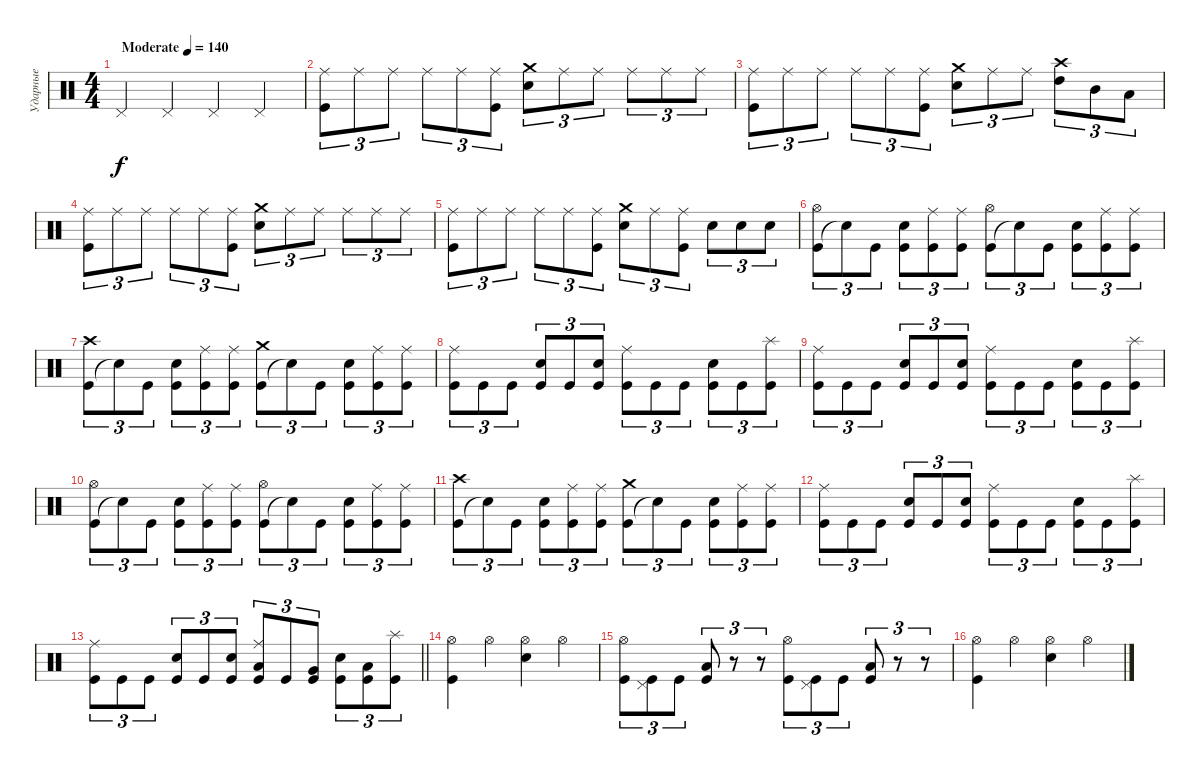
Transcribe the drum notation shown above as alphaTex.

\track ("Ударные" "Ударные") {instrument percussion}
\staff {score}
\articulation defaults
\ts (4 4)
\tempo (140 "Moderate")
\clef neutral
\ks c "Pedal Hi-Hat (hit)".4{dy f} "Pedal Hi-Hat (hit)".4 "Pedal Hi-Hat (hit)".4 "Pedal Hi-Hat (hit)".4
|
("Kick (hit)" "Ride (middle)").8{tu (3 2)} "Ride (middle)".8{tu (3 2)} "Ride (middle)".8{tu (3 2)} "Ride (middle)".8{tu (3 2)} "Ride (middle)".8{tu (3 2)} ("Kick (hit)" "Ride (middle)").8{tu (3 2)} ("Electric Snare (hit)" "Crash medium (hit)").8{tu (3 2)} "Ride (middle)".8{tu (3 2)} "Ride (middle)".8{tu (3 2)} "Ride (middle)".8{tu (3 2)} "Ride (middle)".8{tu (3 2)} "Ride (middle)".8{tu (3 2)} |
("Kick (hit)" "Ride (middle)").8{tu (3 2)} "Ride (middle)".8{tu (3 2)} "Ride (middle)".8{tu (3 2)} "Ride (middle)".8{tu (3 2)} "Ride (middle)".8{tu (3 2)} ("Kick (hit)" "Ride (middle)").8{tu (3 2)} ("Electric Snare (hit)" "Crash medium (hit)").8{tu (3 2)} "Ride (middle)".8{tu (3 2)} "Ride (middle)".8{tu (3 2)} ("High Tom (hit)" "Crash high (hit)").8{tu (3 2)} "Mid Tom (hit)".8{tu (3 2)} "Low Tom (hit)".8{tu (3 2)} |
("Kick (hit)" "Ride (middle)").8{tu (3 2)} "Ride (middle)".8{tu (3 2)} "Ride (middle)".8{tu (3 2)} "Ride (middle)".8{tu (3 2)} "Ride (middle)".8{tu (3 2)} ("Kick (hit)" "Ride (middle)").8{tu (3 2)} ("Electric Snare (hit)" "Crash medium (hit)").8{tu (3 2)} "Ride (middle)".8{tu (3 2)} "Ride (middle)".8{tu (3 2)} "Ride (middle)".8{tu (3 2)} "Ride (middle)".8{tu (3 2)} "Ride (middle)".8{tu (3 2)} |
("Kick (hit)" "Ride (middle)").8{tu (3 2)} "Ride (middle)".8{tu (3 2)} "Ride (middle)".8{tu (3 2)} "Ride (middle)".8{tu (3 2)} "Ride (middle)".8{tu (3 2)} ("Kick (hit)" "Ride (middle)").8{tu (3 2)} ("Electric Snare (hit)" "Crash medium (hit)").8{tu (3 2)} "Ride (middle)".8{tu (3 2)} ("Kick (hit)" "Ride (middle)").8{tu (3 2)} "Electric Snare (hit)".8{tu (3 2)} "Electric Snare (hit)".8{tu (3 2)} "Electric Snare (hit)".8{tu (3 2)} |
("Kick (hit)" "Hi-Hat (open)").8{tu (3 2)} "Snare (hit)"{t}.8{tu (3 2)} "Kick (hit)".8{tu (3 2)} ("Kick (hit)" "Electric Snare (hit)").8{tu (3 2)} ("Kick (hit)" "Ride (middle)").8{tu (3 2)} ("Kick (hit)" "Ride (middle)").8{tu (3 2)} ("Kick (hit)" "Hi-Hat (open)").8{tu (3 2)} "Snare (hit)"{t}.8{tu (3 2)} "Kick (hit)".8{tu (3 2)} ("Kick (hit)" "Electric Snare (hit)").8{tu (3 2)} ("Kick (hit)" "Ride (middle)").8{tu (3 2)} ("Kick (hit)" "Ride (middle)").8{tu (3 2)} |
("Kick (hit)" "Crash high (hit)").8{tu (3 2)} "Snare (hit)"{t}.8{tu (3 2)} "Kick (hit)".8{tu (3 2)} ("Kick (hit)" "Electric Snare (hit)").8{tu (3 2)} ("Kick (hit)" "Ride (middle)").8{tu (3 2)} ("Kick (hit)" "Ride (middle)").8{tu (3 2)} ("Kick (hit)" "Crash medium (hit)").8{tu (3 2)} "Snare (hit)"{t}.8{tu (3 2)} "Kick (hit)".8{tu (3 2)} ("Kick (hit)" "Electric Snare (hit)").8{tu (3 2)} ("Kick (hit)" "Ride (middle)").8{tu (3 2)} ("Kick (hit)" "Ride (middle)").8{tu (3 2)} |
("Ride (middle)" "Kick (hit)").8{tu (3 2)} "Kick (hit)".8{tu (3 2)} "Kick (hit)".8{tu (3 2)} ("Electric Snare (hit)" "Kick (hit)").8{tu (3 2)} "Kick (hit)".8{tu (3 2)} ("Electric Snare (hit)" "Kick (hit)").8{tu (3 2)} ("Ride (middle)" "Kick (hit)").8{tu (3 2)} "Kick (hit)".8{tu (3 2)} "Kick (hit)".8{tu (3 2)} ("Electric Snare (hit)" "Kick (hit)").8{tu (3 2)} "Kick (hit)".8{tu (3 2)} ("Splash (hit)" "Kick (hit)").8{tu (3 2)} |
("Ride (middle)" "Kick (hit)").8{tu (3 2)} "Kick (hit)".8{tu (3 2)} "Kick (hit)".8{tu (3 2)} ("Electric Snare (hit)" "Kick (hit)").8{tu (3 2)} "Kick (hit)".8{tu (3 2)} ("Electric Snare (hit)" "Kick (hit)").8{tu (3 2)} ("Ride (middle)" "Kick (hit)").8{tu (3 2)} "Kick (hit)".8{tu (3 2)} "Kick (hit)".8{tu (3 2)} ("Electric Snare (hit)" "Kick (hit)").8{tu (3 2)} "Kick (hit)".8{tu (3 2)} ("Splash (hit)" "Kick (hit)").8{tu (3 2)} |
("Kick (hit)" "Hi-Hat (open)").8{tu (3 2)} "Snare (hit)"{t}.8{tu (3 2)} "Kick (hit)".8{tu (3 2)} ("Kick (hit)" "Electric Snare (hit)").8{tu (3 2)} ("Kick (hit)" "Ride (middle)").8{tu (3 2)} ("Kick (hit)" "Ride (middle)").8{tu (3 2)} ("Kick (hit)" "Hi-Hat (open)").8{tu (3 2)} "Snare (hit)"{t}.8{tu (3 2)} "Kick (hit)".8{tu (3 2)} ("Kick (hit)" "Electric Snare (hit)").8{tu (3 2)} ("Kick (hit)" "Ride (middle)").8{tu (3 2)} ("Kick (hit)" "Ride (middle)").8{tu (3 2)} |
("Kick (hit)" "Crash high (hit)").8{tu (3 2)} "Snare (hit)"{t}.8{tu (3 2)} "Kick (hit)".8{tu (3 2)} ("Kick (hit)" "Electric Snare (hit)").8{tu (3 2)} ("Kick (hit)" "Ride (middle)").8{tu (3 2)} ("Kick (hit)" "Ride (middle)").8{tu (3 2)} ("Kick (hit)" "Crash medium (hit)").8{tu (3 2)} "Snare (hit)"{t}.8{tu (3 2)} "Kick (hit)".8{tu (3 2)} ("Kick (hit)" "Electric Snare (hit)").8{tu (3 2)} ("Kick (hit)" "Ride (middle)").8{tu (3 2)} ("Kick (hit)" "Ride (middle)").8{tu (3 2)} |
("Ride (middle)" "Kick (hit)").8{tu (3 2)} "Kick (hit)".8{tu (3 2)} "Kick (hit)".8{tu (3 2)} ("Electric Snare (hit)" "Kick (hit)").8{tu (3 2)} "Kick (hit)".8{tu (3 2)} ("Electric Snare (hit)" "Kick (hit)").8{tu (3 2)} ("Ride (middle)" "Kick (hit)").8{tu (3 2)} "Kick (hit)".8{tu (3 2)} "Kick (hit)".8{tu (3 2)} ("Electric Snare (hit)" "Kick (hit)").8{tu (3 2)} "Kick (hit)".8{tu (3 2)} ("Splash (hit)" "Kick (hit)").8{tu (3 2)} |
\barLineRight lightlight
("Ride (middle)" "Kick (hit)").8{tu (3 2)} "Kick (hit)".8{tu (3 2)} "Kick (hit)".8{tu (3 2)} ("Electric Snare (hit)" "Kick (hit)").8{tu (3 2)} "Kick (hit)".8{tu (3 2)} ("Electric Snare (hit)" "Kick (hit)").8{tu (3 2)} ("Low Tom (hit)" "Ride (middle)" "Kick (hit)").8{tu (3 2)} "Kick (hit)".8{tu (3 2)} ("Very Low Tom (hit)" "Kick (hit)").8{tu (3 2)} ("Electric Snare (hit)" "Kick (hit)").8{tu (3 2)} ("Low Floor Tom (hit)" "Kick (hit)").8{tu (3 2)} ("Splash (hit)" "Kick (hit)").8{tu (3 2)} |
\section ("" " ")
("Hi-Hat (open)" "Kick (hit)").4 "Hi-Hat (open)".4 ("Hi-Hat (open)" "Electric Snare (hit)").4 "Hi-Hat (open)".4 |
("Hi-Hat (open)" "Kick (hit)").8{tu (3 2)} ("Pedal Hi-Hat (hit)" "Kick (hit)").8{tu (3 2)} "Kick (hit)".8{tu (3 2)} ("Low Floor Tom (hit)" "Kick (hit)").8{tu (3 2)} r.8{tu (3 2)} r.8{tu (3 2)} ("Hi-Hat (open)" "Kick (hit)").8{tu (3 2)} ("Pedal Hi-Hat (hit)" "Kick (hit)").8{tu (3 2)} "Kick (hit)".8{tu (3 2)} ("Low Floor Tom (hit)" "Kick (hit)").8{tu (3 2)} r.8{tu (3 2)} r.8{tu (3 2)} |
("Hi-Hat (open)" "Kick (hit)").4 "Hi-Hat (open)".4 ("Hi-Hat (open)" "Electric Snare (hit)").4 "Hi-Hat (open)".4
